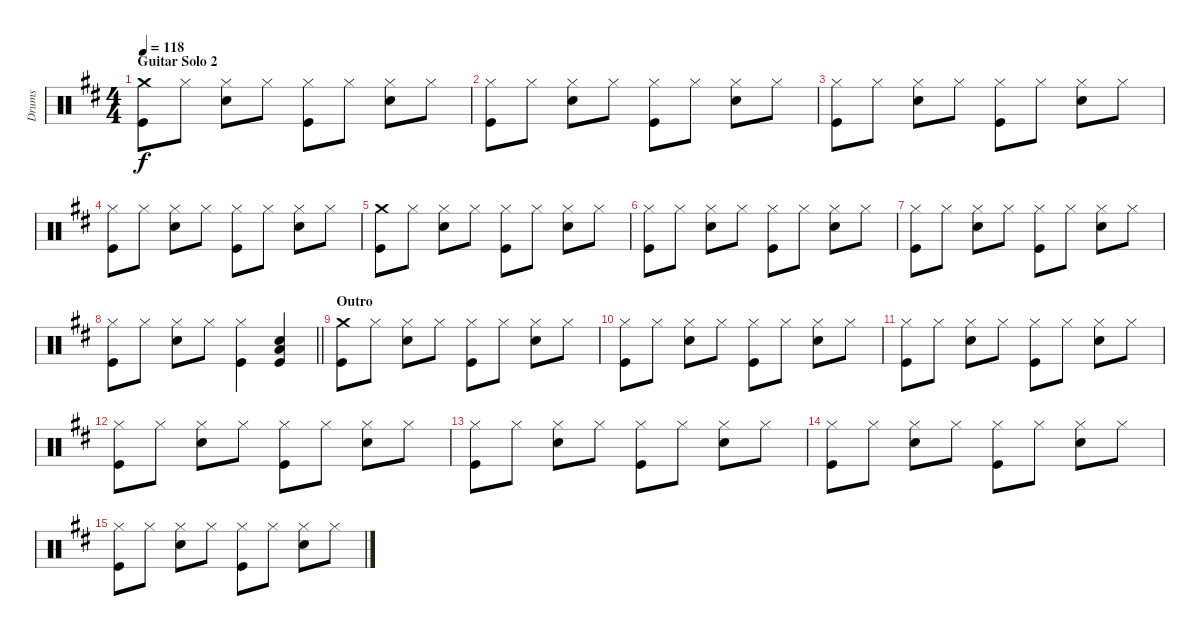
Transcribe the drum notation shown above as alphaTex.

\track ("Drums" "Drums") {instrument percussion}
\staff {score}
\articulation defaults
\ts (4 4)
\section ("" "Guitar Solo 2")
\tempo 118
\clef neutral
\ks d
("Crash medium (hit)" "Kick (hit)").8{dy f} "Hi-Hat (closed)".8 ("Hi-Hat (closed)" "Electric Snare (hit)").8 "Hi-Hat (closed)".8 ("Hi-Hat (closed)" "Kick (hit)").8 "Hi-Hat (closed)".8 ("Hi-Hat (closed)" "Electric Snare (hit)").8 "Hi-Hat (closed)".8 |
("Hi-Hat (closed)" "Kick (hit)").8 "Hi-Hat (closed)".8 ("Hi-Hat (closed)" "Electric Snare (hit)").8 "Hi-Hat (closed)".8 ("Hi-Hat (closed)" "Kick (hit)").8 "Hi-Hat (closed)".8 ("Hi-Hat (closed)" "Electric Snare (hit)").8 "Hi-Hat (closed)".8 |
("Hi-Hat (closed)" "Kick (hit)").8 "Hi-Hat (closed)".8 ("Hi-Hat (closed)" "Electric Snare (hit)").8 "Hi-Hat (closed)".8 ("Hi-Hat (closed)" "Kick (hit)").8 "Hi-Hat (closed)".8 ("Hi-Hat (closed)" "Electric Snare (hit)").8 "Hi-Hat (closed)".8 |
("Hi-Hat (closed)" "Kick (hit)").8 "Hi-Hat (closed)".8 ("Hi-Hat (closed)" "Electric Snare (hit)").8 "Hi-Hat (closed)".8 ("Hi-Hat (closed)" "Kick (hit)").8 "Hi-Hat (closed)".8 ("Hi-Hat (closed)" "Electric Snare (hit)").8 "Hi-Hat (closed)".8 |
("Crash medium (hit)" "Kick (hit)").8 "Hi-Hat (closed)".8 ("Hi-Hat (closed)" "Electric Snare (hit)").8 "Hi-Hat (closed)".8 ("Hi-Hat (closed)" "Kick (hit)").8 "Hi-Hat (closed)".8 ("Hi-Hat (closed)" "Electric Snare (hit)").8 "Hi-Hat (closed)".8 |
("Hi-Hat (closed)" "Kick (hit)").8 "Hi-Hat (closed)".8 ("Hi-Hat (closed)" "Electric Snare (hit)").8 "Hi-Hat (closed)".8 ("Hi-Hat (closed)" "Kick (hit)").8 "Hi-Hat (closed)".8 ("Hi-Hat (closed)" "Electric Snare (hit)").8 "Hi-Hat (closed)".8 |
("Hi-Hat (closed)" "Kick (hit)").8 "Hi-Hat (closed)".8 ("Hi-Hat (closed)" "Electric Snare (hit)").8 "Hi-Hat (closed)".8 ("Hi-Hat (closed)" "Kick (hit)").8 "Hi-Hat (closed)".8 ("Hi-Hat (closed)" "Electric Snare (hit)").8 "Hi-Hat (closed)".8 |
\barLineRight lightlight
("Hi-Hat (closed)" "Kick (hit)").8 "Hi-Hat (closed)".8 ("Hi-Hat (closed)" "Electric Snare (hit)").8 "Hi-Hat (closed)".8 ("Hi-Hat (closed)" "Kick (hit)").4 ("Electric Snare (hit)" "Low Tom (hit)" "Kick (hit)").4 |
\section ("" "Outro")
("Crash medium (hit)" "Kick (hit)").8 "Hi-Hat (closed)".8 ("Hi-Hat (closed)" "Electric Snare (hit)").8 "Hi-Hat (closed)".8 ("Hi-Hat (closed)" "Kick (hit)").8 "Hi-Hat (closed)".8 ("Hi-Hat (closed)" "Electric Snare (hit)").8 "Hi-Hat (closed)".8 |
("Hi-Hat (closed)" "Kick (hit)").8 "Hi-Hat (closed)".8 ("Hi-Hat (closed)" "Electric Snare (hit)").8 "Hi-Hat (closed)".8 ("Hi-Hat (closed)" "Kick (hit)").8 "Hi-Hat (closed)".8 ("Hi-Hat (closed)" "Electric Snare (hit)").8 "Hi-Hat (closed)".8 |
("Hi-Hat (closed)" "Kick (hit)").8 "Hi-Hat (closed)".8 ("Hi-Hat (closed)" "Electric Snare (hit)").8 "Hi-Hat (closed)".8 ("Hi-Hat (closed)" "Kick (hit)").8 "Hi-Hat (closed)".8 ("Hi-Hat (closed)" "Electric Snare (hit)").8 "Hi-Hat (closed)".8 |
("Hi-Hat (closed)" "Kick (hit)").8 "Hi-Hat (closed)".8 ("Hi-Hat (closed)" "Electric Snare (hit)").8 "Hi-Hat (closed)".8 ("Hi-Hat (closed)" "Kick (hit)").8 "Hi-Hat (closed)".8 ("Hi-Hat (closed)" "Electric Snare (hit)").8 "Hi-Hat (closed)".8 |
("Hi-Hat (closed)" "Kick (hit)").8 "Hi-Hat (closed)".8 ("Hi-Hat (closed)" "Electric Snare (hit)").8 "Hi-Hat (closed)".8 ("Hi-Hat (closed)" "Kick (hit)").8 "Hi-Hat (closed)".8 ("Hi-Hat (closed)" "Electric Snare (hit)").8 "Hi-Hat (closed)".8 |
("Hi-Hat (closed)" "Kick (hit)").8 "Hi-Hat (closed)".8 ("Hi-Hat (closed)" "Electric Snare (hit)").8 "Hi-Hat (closed)".8 ("Hi-Hat (closed)" "Kick (hit)").8 "Hi-Hat (closed)".8 ("Hi-Hat (closed)" "Electric Snare (hit)").8 "Hi-Hat (closed)".8 |
("Hi-Hat (closed)" "Kick (hit)").8 "Hi-Hat (closed)".8 ("Hi-Hat (closed)" "Electric Snare (hit)").8 "Hi-Hat (closed)".8 ("Hi-Hat (closed)" "Kick (hit)").8 "Hi-Hat (closed)".8 ("Hi-Hat (closed)" "Electric Snare (hit)").8 "Hi-Hat (closed)".8
